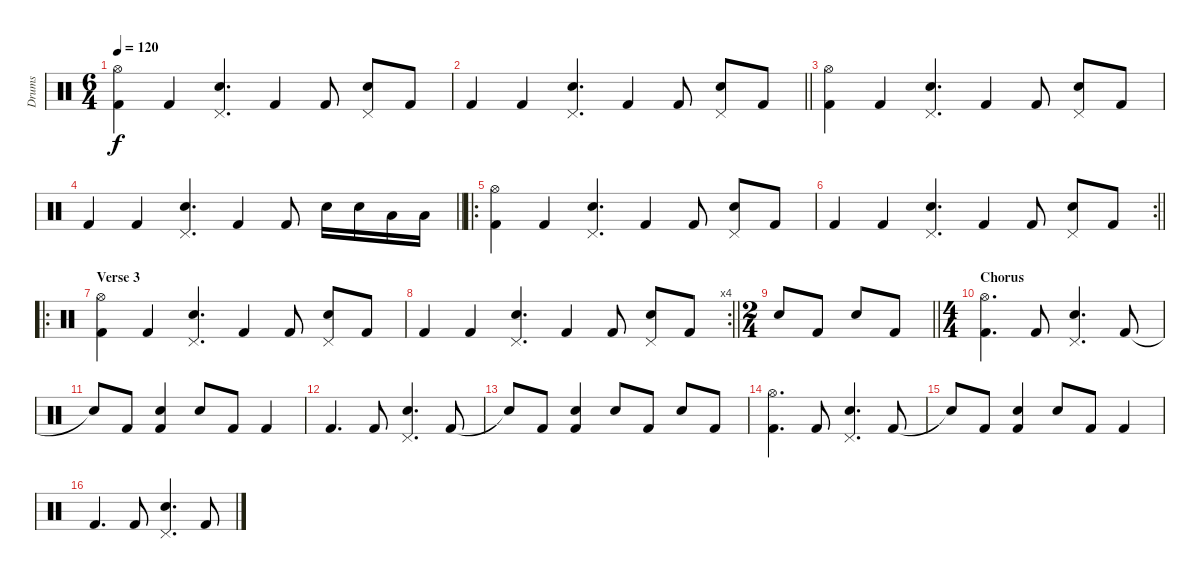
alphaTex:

\track ("Drums" "Drums") {instrument percussion}
\staff {score}
\articulation defaults
\ts (6 4)
\tempo 120
\clef neutral
\ks c
("Hi-Hat (open)" "Kick (hit) 2").4{dy f} "Kick (hit) 2".4 ("Pedal Hi-Hat (hit)" "Snare (hit) 2").4{d} "Kick (hit) 2".4 "Kick (hit) 2".8 ("Pedal Hi-Hat (hit)" "Snare (hit) 2").8 "Kick (hit) 2".8 |
\barLineRight lightlight "Kick (hit) 2".4 "Kick (hit) 2".4
("Pedal Hi-Hat (hit)" "Snare (hit) 2").4{d} "Kick (hit) 2".4 "Kick (hit) 2".8 ("Pedal Hi-Hat (hit)" "Snare (hit) 2").8 "Kick (hit) 2".8 |
("Hi-Hat (open)" "Kick (hit) 2").4 "Kick (hit) 2".4 ("Pedal Hi-Hat (hit)" "Snare (hit) 2").4{d} "Kick (hit) 2".4 "Kick (hit) 2".8 ("Pedal Hi-Hat (hit)" "Snare (hit) 2").8 "Kick (hit) 2".8 |
\barLineRight lightlight "Kick (hit) 2".4 "Kick (hit) 2".4
("Pedal Hi-Hat (hit)" "Snare (hit) 2").4{d} "Kick (hit) 2".4 "Kick (hit) 2".8 "Snare (hit) 2".16 "Snare (hit) 2".16 "Low Tom (hit)".16 "Low Tom (hit)".16 |
\ro
("Hi-Hat (open)" "Kick (hit) 2").4 "Kick (hit) 2".4 ("Pedal Hi-Hat (hit)" "Snare (hit) 2").4{d} "Kick (hit) 2".4 "Kick (hit) 2".8 ("Pedal Hi-Hat (hit)" "Snare (hit) 2").8 "Kick (hit) 2".8 |
\rc 2
\barLineRight lightlight "Kick (hit) 2".4 "Kick (hit) 2".4
("Pedal Hi-Hat (hit)" "Snare (hit) 2").4{d} "Kick (hit) 2".4 "Kick (hit) 2".8 ("Pedal Hi-Hat (hit)" "Snare (hit) 2").8 "Kick (hit) 2".8 |
\ro
\section ("" "Verse 3")
("Hi-Hat (open)" "Kick (hit) 2").4 "Kick (hit) 2".4 ("Pedal Hi-Hat (hit)" "Snare (hit) 2").4{d} "Kick (hit) 2".4 "Kick (hit) 2".8 ("Pedal Hi-Hat (hit)" "Snare (hit) 2").8 "Kick (hit) 2".8 |
\rc 4
\barLineRight lightlight "Kick (hit) 2".4 "Kick (hit) 2".4
("Pedal Hi-Hat (hit)" "Snare (hit) 2").4{d} "Kick (hit) 2".4 "Kick (hit) 2".8 ("Pedal Hi-Hat (hit)" "Snare (hit) 2").8 "Kick (hit) 2".8 |
\ts (2 4)
\barLineRight lightlight "Snare (hit) 2".8 "Kick (hit) 2".8 "Snare (hit) 2".8 "Kick (hit) 2".8
|
\ts (4 4)
\section ("" "Chorus")
("Hi-Hat (open)" "Kick (hit) 2").4{d} "Kick (hit) 2".8 ("Pedal Hi-Hat (hit)" "Snare (hit) 2").4{d} "Kick (hit) 2".8 |
"Snare (hit)"{t}.8 "Kick (hit) 2".8 ("Snare (hit) 2" "Kick (hit) 2").4 "Snare (hit) 2".8 "Kick (hit) 2".8 "Kick (hit) 2".4 |
"Kick (hit) 2".4{d} "Kick (hit) 2".8 ("Pedal Hi-Hat (hit)" "Snare (hit) 2").4{d} "Kick (hit) 2".8 |
"Snare (hit)"{t}.8 "Kick (hit) 2".8 ("Snare (hit) 2" "Kick (hit) 2").4 "Snare (hit) 2".8 "Kick (hit) 2".8 "Snare (hit) 2".8 "Kick (hit) 2".8 |
("Hi-Hat (open)" "Kick (hit) 2").4{d} "Kick (hit) 2".8 ("Pedal Hi-Hat (hit)" "Snare (hit) 2").4{d} "Kick (hit) 2".8 |
"Snare (hit)"{t}.8 "Kick (hit) 2".8 ("Snare (hit) 2" "Kick (hit) 2").4 "Snare (hit) 2".8 "Kick (hit) 2".8 "Kick (hit) 2".4 |
"Kick (hit) 2".4{d} "Kick (hit) 2".8 ("Pedal Hi-Hat (hit)" "Snare (hit) 2").4{d} "Kick (hit) 2".8
